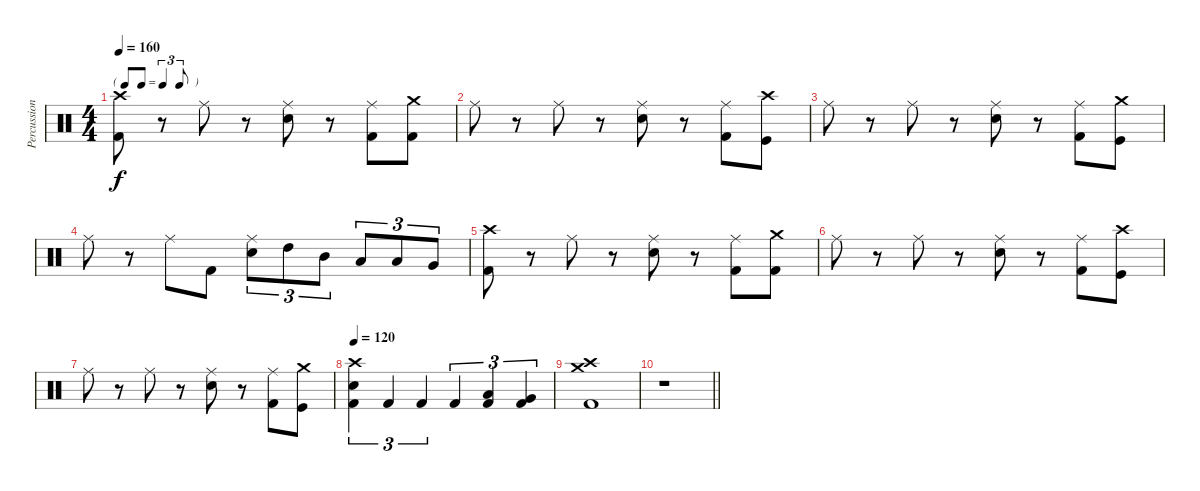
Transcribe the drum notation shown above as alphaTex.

\track ("Percussion" "Percussion") {instrument percussion}
\staff {score}
\articulation defaults
\ts (4 4)
\tf triplet8th
\tempo 160
\clef neutral
\ks c
("Crash high (hit)" "Kick (hit) 2").8{dy f} r.8 "Ride (middle)".8 r.8 ("Ride (middle)" "Electric Snare (hit)").8 r.8 ("Ride (middle)" "Kick (hit) 2").8 ("Crash medium (hit)" "Kick (hit) 2").8 |
"Ride (middle)".8 r.8 "Ride (middle)".8 r.8 ("Ride (middle)" "Electric Snare (hit)").8 r.8 ("Ride (middle)" "Kick (hit) 2").8 ("Crash high (hit)" "Kick (hit)").8 |
"Ride (middle)".8 r.8 "Ride (middle)".8 r.8 ("Ride (middle)" "Electric Snare (hit)").8 r.8 ("Ride (middle)" "Kick (hit) 2").8 ("Crash medium (hit)" "Kick (hit)").8 |
"Ride (middle)".8 r.8 "Ride (middle)".8 "Kick (hit) 2".8 ("Ride (middle)" "Electric Snare (hit)").8{tu (3 2)} "High Tom (hit)".8{tu (3 2)} "Mid Tom (hit)".8{tu (3 2)} "Low Tom (hit)".8{tu (3 2)} "Low Tom (hit)".8{tu (3 2)} "Very Low Tom (hit)".8{tu (3 2)} |
("Crash high (hit)" "Kick (hit) 2").8 r.8 "Ride (middle)".8 r.8 ("Ride (middle)" "Electric Snare (hit)").8 r.8 ("Ride (middle)" "Kick (hit) 2").8 ("Crash medium (hit)" "Kick (hit) 2").8 |
"Ride (middle)".8 r.8 "Ride (middle)".8 r.8 ("Ride (middle)" "Electric Snare (hit)").8 r.8 ("Ride (middle)" "Kick (hit) 2").8 ("Crash high (hit)" "Kick (hit)").8 |
"Ride (middle)".8 r.8 "Ride (middle)".8 r.8 ("Ride (middle)" "Electric Snare (hit)").8 r.8 ("Ride (middle)" "Kick (hit) 2").8 ("Crash medium (hit)" "Kick (hit)").8 |
\tempo 120
("Crash high (hit)" "Electric Snare (hit)" "Kick (hit) 2").4{tu (3 2)} "Kick (hit) 2".4{tu (3 2)} "Kick (hit) 2".4{tu (3 2)} "Kick (hit) 2".4{tu (3 2)} ("Low Tom (hit)" "Kick (hit) 2").4{tu (3 2)} ("Very Low Tom (hit)" "Kick (hit) 2").4{tu (3 2)} |
("Crash medium (hit)" "Crash high (hit)" "Kick (hit) 2").1 |
\barLineRight lightlight
r.1
